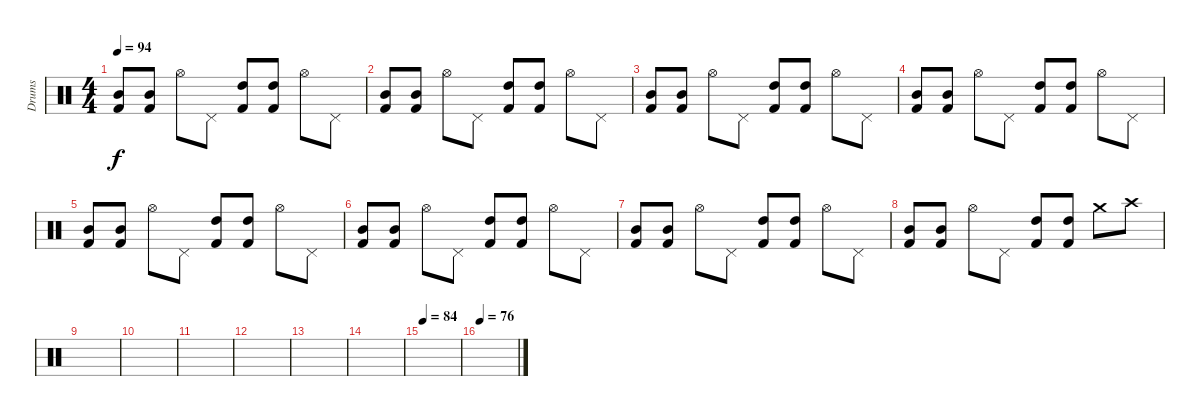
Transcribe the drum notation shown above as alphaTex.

\track ("Drums" "Drums") {instrument percussion}
\staff {score}
\articulation defaults
\ts (4 4)
\tempo 94
\clef neutral
\ks c
("Mid Tom (hit)" "Kick (hit) 2").8{dy f} ("Mid Tom (hit)" "Kick (hit) 2").8 "Hi-Hat (open)".8 "Pedal Hi-Hat (hit)".8 ("High Tom (hit)" "Kick (hit) 2").8 ("High Tom (hit)" "Kick (hit) 2").8 "Hi-Hat (open)".8 "Pedal Hi-Hat (hit)".8 |
("Mid Tom (hit)" "Kick (hit) 2").8 ("Mid Tom (hit)" "Kick (hit) 2").8 "Hi-Hat (open)".8 "Pedal Hi-Hat (hit)".8 ("High Tom (hit)" "Kick (hit) 2").8 ("High Tom (hit)" "Kick (hit) 2").8 "Hi-Hat (open)".8 "Pedal Hi-Hat (hit)".8 |
("Mid Tom (hit)" "Kick (hit) 2").8 ("Mid Tom (hit)" "Kick (hit) 2").8 "Hi-Hat (open)".8 "Pedal Hi-Hat (hit)".8 ("High Tom (hit)" "Kick (hit) 2").8 ("High Tom (hit)" "Kick (hit) 2").8 "Hi-Hat (open)".8 "Pedal Hi-Hat (hit)".8 |
("Mid Tom (hit)" "Kick (hit) 2").8 ("Mid Tom (hit)" "Kick (hit) 2").8 "Hi-Hat (open)".8 "Pedal Hi-Hat (hit)".8 ("High Tom (hit)" "Kick (hit) 2").8 ("High Tom (hit)" "Kick (hit) 2").8 "Hi-Hat (open)".8 "Pedal Hi-Hat (hit)".8 |
("Mid Tom (hit)" "Kick (hit) 2").8 ("Mid Tom (hit)" "Kick (hit) 2").8 "Hi-Hat (open)".8 "Pedal Hi-Hat (hit)".8 ("High Tom (hit)" "Kick (hit) 2").8 ("High Tom (hit)" "Kick (hit) 2").8 "Hi-Hat (open)".8 "Pedal Hi-Hat (hit)".8 |
("Mid Tom (hit)" "Kick (hit) 2").8 ("Mid Tom (hit)" "Kick (hit) 2").8 "Hi-Hat (open)".8 "Pedal Hi-Hat (hit)".8 ("High Tom (hit)" "Kick (hit) 2").8 ("High Tom (hit)" "Kick (hit) 2").8 "Hi-Hat (open)".8 "Pedal Hi-Hat (hit)".8 |
("Mid Tom (hit)" "Kick (hit) 2").8 ("Mid Tom (hit)" "Kick (hit) 2").8 "Hi-Hat (open)".8 "Pedal Hi-Hat (hit)".8 ("High Tom (hit)" "Kick (hit) 2").8 ("High Tom (hit)" "Kick (hit) 2").8 "Hi-Hat (open)".8 "Pedal Hi-Hat (hit)".8 |
("Mid Tom (hit)" "Kick (hit) 2").8 ("Mid Tom (hit)" "Kick (hit) 2").8 "Hi-Hat (open)".8 "Pedal Hi-Hat (hit)".8 ("High Tom (hit)" "Kick (hit) 2").8 ("High Tom (hit)" "Kick (hit) 2").8 "Crash medium (hit)".8 "Crash high (hit)".8 |
|
|
|
|
|
|
\tempo 84
|
\tempo 76
